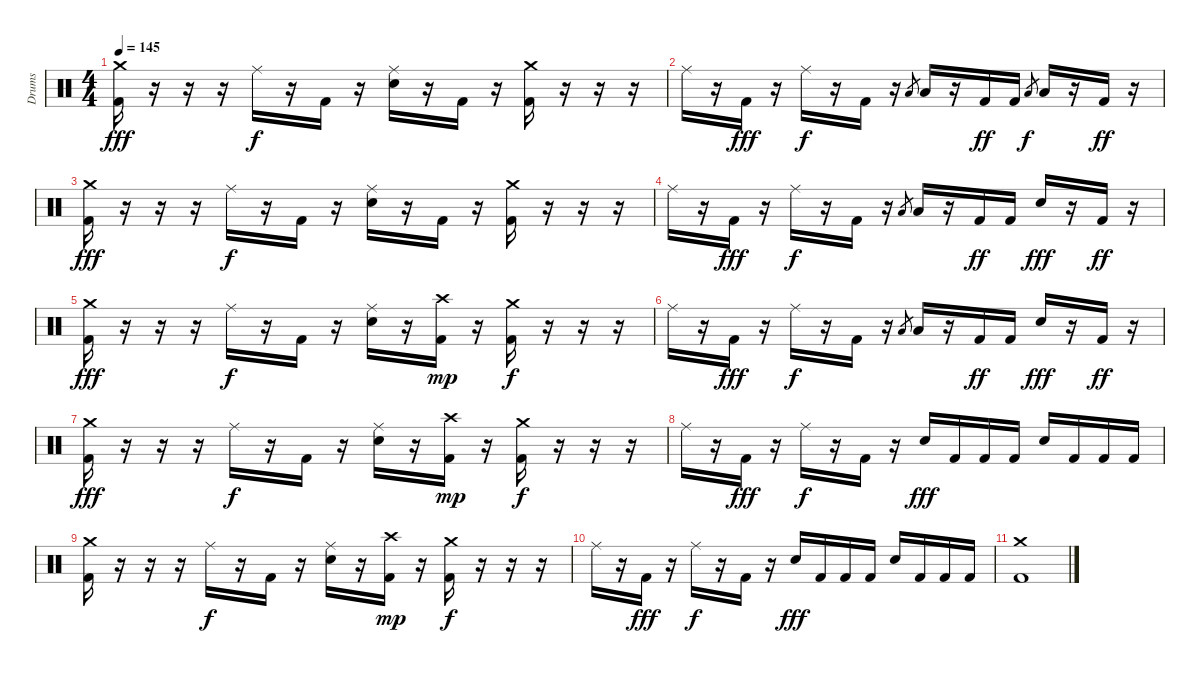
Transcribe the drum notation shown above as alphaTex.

\track ("Drums" "Drums") {instrument percussion}
\staff {score}
\articulation defaults
\ts (4 4)
\tempo 145
\clef neutral
\ks c
("Crash medium (hit)" "Kick (hit) 2").16{dy fff} r.16 r.16 r.16 "Ride (middle)".16{dy f} r.16 "Kick (hit) 2".16 r.16 ("Ride (middle)" "Electric Snare (hit)").16 r.16 "Kick (hit) 2".16 r.16 ("Crash medium (hit)" "Kick (hit) 2").16 r.16 r.16 r.16 |
"Ride (middle)".16 r.16 "Kick (hit) 2".16{dy fff} r.16 "Ride (middle)".16{dy f} r.16 "Kick (hit) 2".16 r.16 "Low Tom (hit)".8{gr} "Low Tom (hit)".16 r.16 "Kick (hit) 2".16{dy ff} "Kick (hit) 2".16 "Low Tom (hit)".8{gr dy f} "Low Tom (hit)".16 r.16 "Kick (hit) 2".16{dy ff} r.16 |
("Crash medium (hit)" "Kick (hit) 2").16{dy fff} r.16 r.16 r.16 "Ride (middle)".16{dy f} r.16 "Kick (hit) 2".16 r.16 ("Ride (middle)" "Electric Snare (hit)").16 r.16 "Kick (hit) 2".16 r.16 ("Crash medium (hit)" "Kick (hit) 2").16 r.16 r.16 r.16 |
"Ride (middle)".16 r.16 "Kick (hit) 2".16{dy fff} r.16 "Ride (middle)".16{dy f} r.16 "Kick (hit) 2".16 r.16 "Low Tom (hit)".8{gr} "Low Tom (hit)".16 r.16 "Kick (hit) 2".16{dy ff} "Kick (hit) 2".16 "Electric Snare (hit)".16{dy fff} r.16 "Kick (hit) 2".16{dy ff} r.16 |
("Crash medium (hit)" "Kick (hit) 2").16{dy fff} r.16 r.16 r.16 "Ride (middle)".16{dy f} r.16 "Kick (hit) 2".16 r.16 ("Ride (middle)" "Electric Snare (hit)").16 r.16 ("Crash high (hit)" "Kick (hit) 2").16{dy mp} r.16 ("Crash medium (hit)" "Kick (hit) 2").16{dy f} r.16 r.16 r.16 |
"Ride (middle)".16 r.16 "Kick (hit) 2".16{dy fff} r.16 "Ride (middle)".16{dy f} r.16 "Kick (hit) 2".16 r.16 "Low Tom (hit)".8{gr} "Low Tom (hit)".16 r.16 "Kick (hit) 2".16{dy ff} "Kick (hit) 2".16 "Electric Snare (hit)".16{dy fff} r.16 "Kick (hit) 2".16{dy ff} r.16 |
("Crash medium (hit)" "Kick (hit) 2").16{dy fff} r.16 r.16 r.16 "Ride (middle)".16{dy f} r.16 "Kick (hit) 2".16 r.16 ("Ride (middle)" "Electric Snare (hit)").16 r.16 ("Crash high (hit)" "Kick (hit) 2").16{dy mp} r.16 ("Crash medium (hit)" "Kick (hit) 2").16{dy f} r.16 r.16 r.16 |
"Ride (middle)".16 r.16 "Kick (hit) 2".16{dy fff} r.16 "Ride (middle)".16{dy f} r.16 "Kick (hit) 2".16 r.16 "Electric Snare (hit)".16{dy fff} "Kick (hit) 2".16 "Kick (hit) 2".16 "Kick (hit) 2".16 "Electric Snare (hit)".16 "Kick (hit) 2".16 "Kick (hit) 2".16 "Kick (hit) 2".16 |
("Crash medium (hit)" "Kick (hit) 2").16 r.16 r.16 r.16 "Ride (middle)".16{dy f} r.16 "Kick (hit) 2".16 r.16 ("Ride (middle)" "Electric Snare (hit)").16 r.16 ("Crash high (hit)" "Kick (hit) 2").16{dy mp} r.16 ("Crash medium (hit)" "Kick (hit) 2").16{dy f} r.16 r.16 r.16 |
"Ride (middle)".16 r.16 "Kick (hit) 2".16{dy fff} r.16 "Ride (middle)".16{dy f} r.16 "Kick (hit) 2".16 r.16 "Electric Snare (hit)".16{dy fff} "Kick (hit) 2".16 "Kick (hit) 2".16 "Kick (hit) 2".16 "Electric Snare (hit)".16 "Kick (hit) 2".16 "Kick (hit) 2".16 "Kick (hit) 2".16 |
("Crash medium (hit)" "Kick (hit) 2").1
